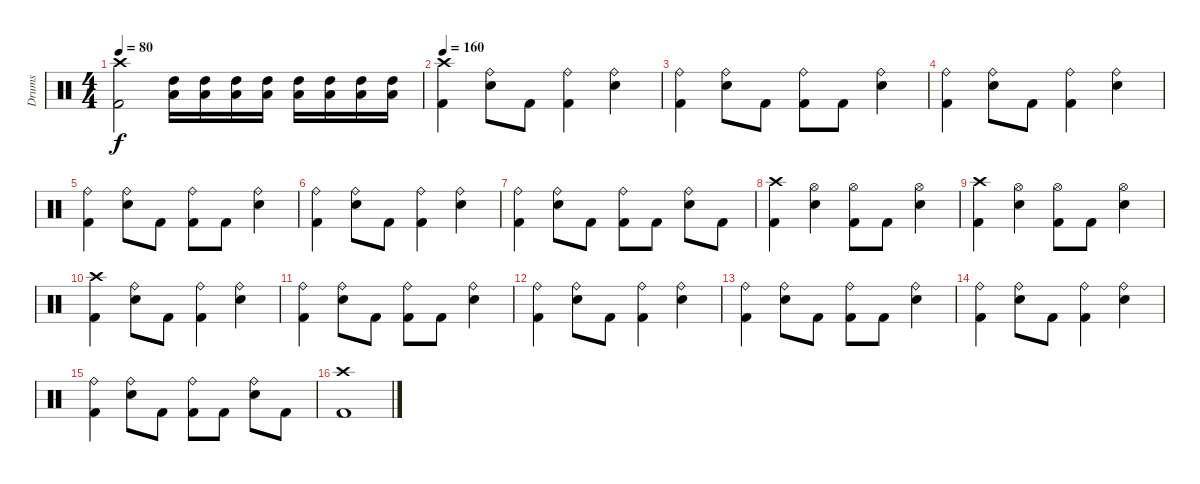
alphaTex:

\track ("Drums" "Drums") {instrument percussion}
\staff {score}
\articulation defaults
\ts (4 4)
\tempo 80
\clef neutral
\ks c
("Crash high (hit)" "Kick (hit) 2").2{dy f} ("Low Tom (hit)" "High Tom (hit)").16 ("Low Tom (hit)" "High Tom (hit)").16 ("Low Tom (hit)" "High Tom (hit)").16 ("Low Tom (hit)" "High Tom (hit)").16 ("Low Tom (hit)" "High Tom (hit)").16 ("Low Tom (hit)" "High Tom (hit)").16 ("Low Tom (hit)" "High Tom (hit)").16 ("Low Tom (hit)" "High Tom (hit)").16 |
\tempo 160
("Crash high (hit)" "Kick (hit) 2").4 ("Ride (bell)" "Electric Snare (hit)").8 "Kick (hit) 2".8 ("Ride (bell)" "Kick (hit) 2").4 ("Ride (bell)" "Electric Snare (hit)").4 |
("Ride (bell)" "Kick (hit) 2").4 ("Ride (bell)" "Electric Snare (hit)").8 "Kick (hit) 2".8 ("Ride (bell)" "Kick (hit) 2").8 "Kick (hit) 2".8 ("Ride (bell)" "Electric Snare (hit)").4 |
("Ride (bell)" "Kick (hit) 2").4 ("Ride (bell)" "Electric Snare (hit)").8 "Kick (hit) 2".8 ("Ride (bell)" "Kick (hit) 2").4 ("Ride (bell)" "Electric Snare (hit)").4 |
("Ride (bell)" "Kick (hit) 2").4 ("Ride (bell)" "Electric Snare (hit)").8 "Kick (hit) 2".8 ("Ride (bell)" "Kick (hit) 2").8 "Kick (hit) 2".8 ("Ride (bell)" "Electric Snare (hit)").4 |
("Ride (bell)" "Kick (hit) 2").4 ("Ride (bell)" "Electric Snare (hit)").8 "Kick (hit) 2".8 ("Ride (bell)" "Kick (hit) 2").4 ("Ride (bell)" "Electric Snare (hit)").4 |
("Ride (bell)" "Kick (hit) 2").4 ("Ride (bell)" "Electric Snare (hit)").8 "Kick (hit) 2".8 ("Ride (bell)" "Kick (hit) 2").8 "Kick (hit) 2".8 ("Ride (bell)" "Electric Snare (hit)").8 "Kick (hit) 2".8 |
("Crash high (hit)" "Kick (hit) 2").4 ("Hi-Hat (open)" "Electric Snare (hit)").4 ("Hi-Hat (open)" "Kick (hit) 2").8 "Kick (hit) 2".8 ("Hi-Hat (open)" "Electric Snare (hit)").4 |
("Crash high (hit)" "Kick (hit) 2").4 ("Hi-Hat (open)" "Electric Snare (hit)").4 ("Hi-Hat (open)" "Kick (hit) 2").8 "Kick (hit) 2".8 ("Hi-Hat (open)" "Electric Snare (hit)").4 |
("Crash high (hit)" "Kick (hit) 2").4 ("Ride (bell)" "Electric Snare (hit)").8 "Kick (hit) 2".8 ("Ride (bell)" "Kick (hit) 2").4 ("Ride (bell)" "Electric Snare (hit)").4 |
("Ride (bell)" "Kick (hit) 2").4 ("Ride (bell)" "Electric Snare (hit)").8 "Kick (hit) 2".8 ("Ride (bell)" "Kick (hit) 2").8 "Kick (hit) 2".8 ("Ride (bell)" "Electric Snare (hit)").4 |
("Ride (bell)" "Kick (hit) 2").4 ("Ride (bell)" "Electric Snare (hit)").8 "Kick (hit) 2".8 ("Ride (bell)" "Kick (hit) 2").4 ("Ride (bell)" "Electric Snare (hit)").4 |
("Ride (bell)" "Kick (hit) 2").4 ("Ride (bell)" "Electric Snare (hit)").8 "Kick (hit) 2".8 ("Ride (bell)" "Kick (hit) 2").8 "Kick (hit) 2".8 ("Ride (bell)" "Electric Snare (hit)").4 |
("Ride (bell)" "Kick (hit) 2").4 ("Ride (bell)" "Electric Snare (hit)").8 "Kick (hit) 2".8 ("Ride (bell)" "Kick (hit) 2").4 ("Ride (bell)" "Electric Snare (hit)").4 |
("Ride (bell)" "Kick (hit) 2").4 ("Ride (bell)" "Electric Snare (hit)").8 "Kick (hit) 2".8 ("Ride (bell)" "Kick (hit) 2").8 "Kick (hit) 2".8 ("Ride (bell)" "Electric Snare (hit)").8 "Kick (hit) 2".8 |
("Crash high (hit)" "Kick (hit) 2").1
